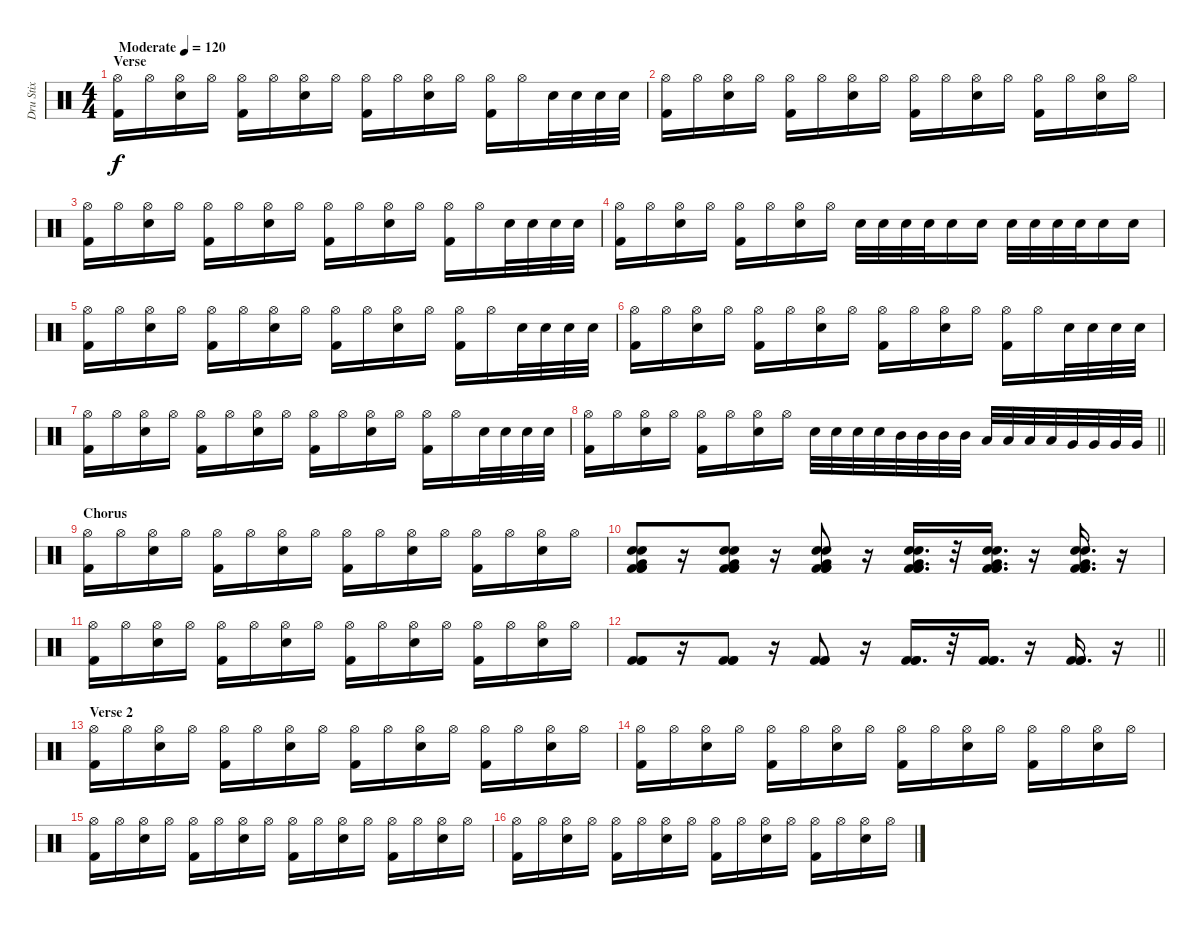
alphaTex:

\track ("Dru Stix " "Dru Stix ") {instrument percussion}
\staff {score}
\articulation defaults
\ts (4 4)
\section ("" "Verse")
\tempo (120 "Moderate")
\clef neutral
\ks c
("Hi-Hat (open)" "Kick (hit) 2").16{dy f} "Hi-Hat (open)".16 ("Hi-Hat (open)" "Electric Snare (hit)").16 "Hi-Hat (open)".16 ("Hi-Hat (open)" "Kick (hit) 2").16 "Hi-Hat (open)".16 ("Hi-Hat (open)" "Electric Snare (hit)").16 "Hi-Hat (open)".16 ("Hi-Hat (open)" "Kick (hit) 2").16 "Hi-Hat (open)".16 ("Hi-Hat (open)" "Electric Snare (hit)").16 "Hi-Hat (open)".16 ("Hi-Hat (open)" "Kick (hit) 2").16 "Hi-Hat (open)".16 "Electric Snare (hit)".32 "Electric Snare (hit)".32 "Electric Snare (hit)".32 "Electric Snare (hit)".32 |
("Hi-Hat (open)" "Kick (hit) 2").16 "Hi-Hat (open)".16 ("Hi-Hat (open)" "Electric Snare (hit)").16 "Hi-Hat (open)".16 ("Hi-Hat (open)" "Kick (hit) 2").16 "Hi-Hat (open)".16 ("Hi-Hat (open)" "Electric Snare (hit)").16 "Hi-Hat (open)".16 ("Hi-Hat (open)" "Kick (hit) 2").16 "Hi-Hat (open)".16 ("Hi-Hat (open)" "Electric Snare (hit)").16 "Hi-Hat (open)".16 ("Hi-Hat (open)" "Kick (hit) 2").16 "Hi-Hat (open)".16 ("Hi-Hat (open)" "Electric Snare (hit)").16 "Hi-Hat (open)".16 |
("Hi-Hat (open)" "Kick (hit) 2").16 "Hi-Hat (open)".16 ("Hi-Hat (open)" "Electric Snare (hit)").16 "Hi-Hat (open)".16 ("Hi-Hat (open)" "Kick (hit) 2").16 "Hi-Hat (open)".16 ("Hi-Hat (open)" "Electric Snare (hit)").16 "Hi-Hat (open)".16 ("Hi-Hat (open)" "Kick (hit) 2").16 "Hi-Hat (open)".16 ("Hi-Hat (open)" "Electric Snare (hit)").16 "Hi-Hat (open)".16 ("Hi-Hat (open)" "Kick (hit) 2").16 "Hi-Hat (open)".16 "Electric Snare (hit)".32 "Electric Snare (hit)".32 "Electric Snare (hit)".32 "Electric Snare (hit)".32 |
("Hi-Hat (open)" "Kick (hit) 2").16 "Hi-Hat (open)".16 ("Hi-Hat (open)" "Electric Snare (hit)").16 "Hi-Hat (open)".16 ("Hi-Hat (open)" "Kick (hit) 2").16 "Hi-Hat (open)".16 ("Hi-Hat (open)" "Electric Snare (hit)").16 "Hi-Hat (open)".16 "Electric Snare (hit)".32 "Electric Snare (hit)".32 "Electric Snare (hit)".32 "Electric Snare (hit)".32 "Electric Snare (hit)".16 "Electric Snare (hit)".16 "Electric Snare (hit)".32 "Electric Snare (hit)".32 "Electric Snare (hit)".32 "Electric Snare (hit)".32 "Electric Snare (hit)".16 "Electric Snare (hit)".16 |
("Hi-Hat (open)" "Kick (hit) 2").16 "Hi-Hat (open)".16 ("Hi-Hat (open)" "Electric Snare (hit)").16 "Hi-Hat (open)".16 ("Hi-Hat (open)" "Kick (hit) 2").16 "Hi-Hat (open)".16 ("Hi-Hat (open)" "Electric Snare (hit)").16 "Hi-Hat (open)".16 ("Hi-Hat (open)" "Kick (hit) 2").16 "Hi-Hat (open)".16 ("Hi-Hat (open)" "Electric Snare (hit)").16 "Hi-Hat (open)".16 ("Hi-Hat (open)" "Kick (hit) 2").16 "Hi-Hat (open)".16 "Electric Snare (hit)".32 "Electric Snare (hit)".32 "Electric Snare (hit)".32 "Electric Snare (hit)".32 |
("Hi-Hat (open)" "Kick (hit) 2").16 "Hi-Hat (open)".16 ("Hi-Hat (open)" "Electric Snare (hit)").16 "Hi-Hat (open)".16 ("Hi-Hat (open)" "Kick (hit) 2").16 "Hi-Hat (open)".16 ("Hi-Hat (open)" "Electric Snare (hit)").16 "Hi-Hat (open)".16 ("Hi-Hat (open)" "Kick (hit) 2").16 "Hi-Hat (open)".16 ("Hi-Hat (open)" "Electric Snare (hit)").16 "Hi-Hat (open)".16 ("Hi-Hat (open)" "Kick (hit) 2").16 "Hi-Hat (open)".16 "Electric Snare (hit)".32 "Electric Snare (hit)".32 "Electric Snare (hit)".32 "Electric Snare (hit)".32 |
("Hi-Hat (open)" "Kick (hit) 2").16 "Hi-Hat (open)".16 ("Hi-Hat (open)" "Electric Snare (hit)").16 "Hi-Hat (open)".16 ("Hi-Hat (open)" "Kick (hit) 2").16 "Hi-Hat (open)".16 ("Hi-Hat (open)" "Electric Snare (hit)").16 "Hi-Hat (open)".16 ("Hi-Hat (open)" "Kick (hit) 2").16 "Hi-Hat (open)".16 ("Hi-Hat (open)" "Electric Snare (hit)").16 "Hi-Hat (open)".16 ("Hi-Hat (open)" "Kick (hit) 2").16 "Hi-Hat (open)".16 "Electric Snare (hit)".32 "Electric Snare (hit)".32 "Electric Snare (hit)".32 "Electric Snare (hit)".32 |
\barLineRight lightlight
("Hi-Hat (open)" "Kick (hit) 2").16 "Hi-Hat (open)".16 ("Hi-Hat (open)" "Electric Snare (hit)").16 "Hi-Hat (open)".16 ("Hi-Hat (open)" "Kick (hit) 2").16 "Hi-Hat (open)".16 ("Hi-Hat (open)" "Electric Snare (hit)").16 "Hi-Hat (open)".16 "Electric Snare (hit)".32 "Electric Snare (hit)".32 "Electric Snare (hit)".32 "Electric Snare (hit)".32 "Mid Tom (hit)".32 "Mid Tom (hit)".32 "Mid Tom (hit)".32 "Mid Tom (hit)".32 "Low Tom (hit)".32 "Low Tom (hit)".32 "Low Tom (hit)".32 "Low Tom (hit)".32 "Very Low Tom (hit)".32 "Very Low Tom (hit)".32 "Very Low Tom (hit)".32 "Very Low Tom (hit)".32 |
\section ("" "Chorus")
("Hi-Hat (open)" "Kick (hit) 2").16 "Hi-Hat (open)".16 ("Hi-Hat (open)" "Electric Snare (hit)").16 "Hi-Hat (open)".16 ("Hi-Hat (open)" "Kick (hit) 2").16 "Hi-Hat (open)".16 ("Hi-Hat (open)" "Electric Snare (hit)").16 "Hi-Hat (open)".16 ("Hi-Hat (open)" "Kick (hit) 2").16 "Hi-Hat (open)".16 ("Hi-Hat (open)" "Electric Snare (hit)").16 "Hi-Hat (open)".16 ("Hi-Hat (open)" "Kick (hit) 2").16 "Hi-Hat (open)".16 ("Hi-Hat (open)" "Electric Snare (hit)").16 "Hi-Hat (open)".16 |
("Very Low Tom (hit)" "Electric Snare (hit)" "Electric Snare (hit)" "Kick (hit) 2" "Kick (hit) 2" "Kick (hit) 2").8 r.16 ("Very Low Tom (hit)" "Electric Snare (hit)" "Electric Snare (hit)" "Kick (hit) 2" "Kick (hit) 2" "Kick (hit) 2").8 r.16 ("Very Low Tom (hit)" "Electric Snare (hit)" "Electric Snare (hit)" "Kick (hit) 2" "Kick (hit) 2" "Kick (hit) 2").8 r.16 ("Very Low Tom (hit)" "Electric Snare (hit)" "Electric Snare (hit)" "Kick (hit) 2" "Kick (hit) 2" "Kick (hit) 2").16{d} r.32 ("Very Low Tom (hit)" "Electric Snare (hit)" "Electric Snare (hit)" "Kick (hit) 2" "Kick (hit) 2" "Kick (hit) 2").16{d} r.16 ("Very Low Tom (hit)" "Electric Snare (hit)" "Electric Snare (hit)" "Kick (hit) 2" "Kick (hit) 2" "Kick (hit) 2").16{d} r.16 |
("Hi-Hat (open)" "Kick (hit) 2").16 "Hi-Hat (open)".16 ("Hi-Hat (open)" "Electric Snare (hit)").16 "Hi-Hat (open)".16 ("Hi-Hat (open)" "Kick (hit) 2").16 "Hi-Hat (open)".16 ("Hi-Hat (open)" "Electric Snare (hit)").16 "Hi-Hat (open)".16 ("Hi-Hat (open)" "Kick (hit) 2").16 "Hi-Hat (open)".16 ("Hi-Hat (open)" "Electric Snare (hit)").16 "Hi-Hat (open)".16 ("Hi-Hat (open)" "Kick (hit) 2").16 "Hi-Hat (open)".16 ("Hi-Hat (open)" "Electric Snare (hit)").16 "Hi-Hat (open)".16 |
\barLineRight lightlight
("Kick (hit) 2" "Kick (hit) 2" "Kick (hit) 2").8 r.16 ("Kick (hit) 2" "Kick (hit) 2" "Kick (hit) 2").8 r.16 ("Kick (hit) 2" "Kick (hit) 2" "Kick (hit) 2").8 r.16 ("Kick (hit) 2" "Kick (hit) 2" "Kick (hit) 2").16{d} r.32 ("Kick (hit) 2" "Kick (hit) 2" "Kick (hit) 2").16{d} r.16 ("Kick (hit) 2" "Kick (hit) 2" "Kick (hit) 2").16{d} r.16 |
\section ("" "Verse 2")
("Hi-Hat (open)" "Kick (hit) 2").16 "Hi-Hat (open)".16 ("Hi-Hat (open)" "Electric Snare (hit)").16 "Hi-Hat (open)".16 ("Hi-Hat (open)" "Kick (hit) 2").16 "Hi-Hat (open)".16 ("Hi-Hat (open)" "Electric Snare (hit)").16 "Hi-Hat (open)".16 ("Hi-Hat (open)" "Kick (hit) 2").16 "Hi-Hat (open)".16 ("Hi-Hat (open)" "Electric Snare (hit)").16 "Hi-Hat (open)".16 ("Hi-Hat (open)" "Kick (hit) 2").16 "Hi-Hat (open)".16 ("Hi-Hat (open)" "Electric Snare (hit)").16 "Hi-Hat (open)".16 |
("Hi-Hat (open)" "Kick (hit) 2").16 "Hi-Hat (open)".16 ("Hi-Hat (open)" "Electric Snare (hit)").16 "Hi-Hat (open)".16 ("Hi-Hat (open)" "Kick (hit) 2").16 "Hi-Hat (open)".16 ("Hi-Hat (open)" "Electric Snare (hit)").16 "Hi-Hat (open)".16 ("Hi-Hat (open)" "Kick (hit) 2").16 "Hi-Hat (open)".16 ("Hi-Hat (open)" "Electric Snare (hit)").16 "Hi-Hat (open)".16 ("Hi-Hat (open)" "Kick (hit) 2").16 "Hi-Hat (open)".16 ("Hi-Hat (open)" "Electric Snare (hit)").16 "Hi-Hat (open)".16 |
("Hi-Hat (open)" "Kick (hit) 2").16 "Hi-Hat (open)".16 ("Hi-Hat (open)" "Electric Snare (hit)").16 "Hi-Hat (open)".16 ("Hi-Hat (open)" "Kick (hit) 2").16 "Hi-Hat (open)".16 ("Hi-Hat (open)" "Electric Snare (hit)").16 "Hi-Hat (open)".16 ("Hi-Hat (open)" "Kick (hit) 2").16 "Hi-Hat (open)".16 ("Hi-Hat (open)" "Electric Snare (hit)").16 "Hi-Hat (open)".16 ("Hi-Hat (open)" "Kick (hit) 2").16 "Hi-Hat (open)".16 ("Hi-Hat (open)" "Electric Snare (hit)").16 "Hi-Hat (open)".16 |
("Hi-Hat (open)" "Kick (hit) 2").16 "Hi-Hat (open)".16 ("Hi-Hat (open)" "Electric Snare (hit)").16 "Hi-Hat (open)".16 ("Hi-Hat (open)" "Kick (hit) 2").16 "Hi-Hat (open)".16 ("Hi-Hat (open)" "Electric Snare (hit)").16 "Hi-Hat (open)".16 ("Hi-Hat (open)" "Kick (hit) 2").16 "Hi-Hat (open)".16 ("Hi-Hat (open)" "Electric Snare (hit)").16 "Hi-Hat (open)".16 ("Hi-Hat (open)" "Kick (hit) 2").16 "Hi-Hat (open)".16 ("Hi-Hat (open)" "Electric Snare (hit)").16 "Hi-Hat (open)".16
